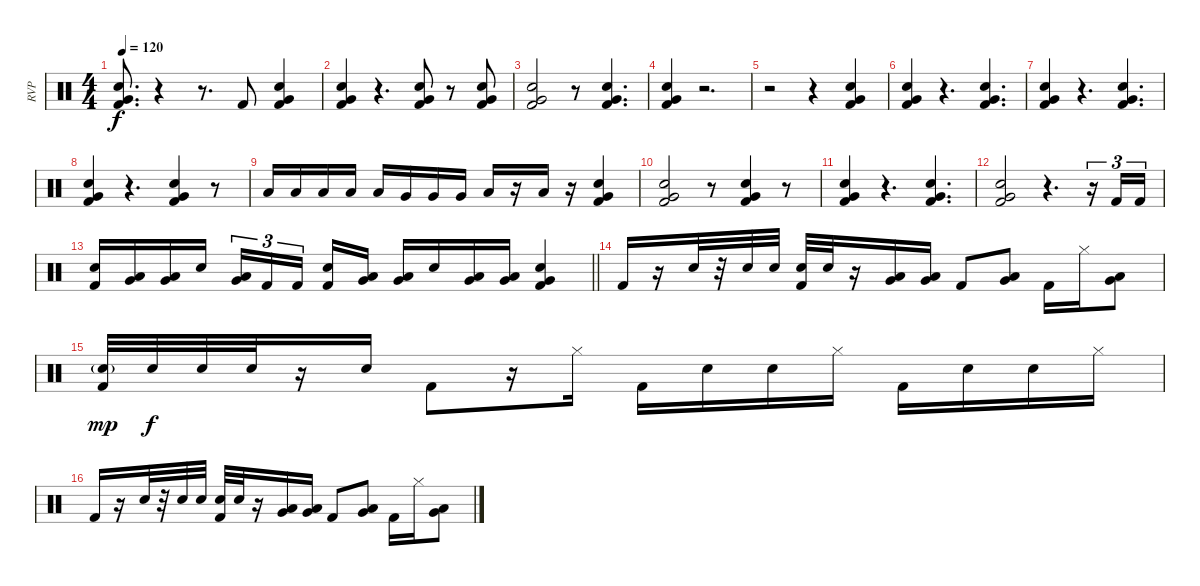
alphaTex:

\track ("RVP" "RVP") {instrument percussion}
\staff {score}
\articulation defaults
\ts (4 4)
\tempo 120
\clef neutral
\ks c
("Very Low Tom (hit)" "Electric Snare (hit)" "Kick (hit) 2").8{d dy f} r.4 r.8{d} "Kick (hit) 2".8 ("Very Low Tom (hit)" "Electric Snare (hit)" "Kick (hit) 2").4 |
("Very Low Tom (hit)" "Electric Snare (hit)" "Kick (hit) 2").4 r.4{d} ("Very Low Tom (hit)" "Electric Snare (hit)" "Kick (hit) 2").8 r.8 ("Very Low Tom (hit)" "Electric Snare (hit)" "Kick (hit) 2").8 |
("Very Low Tom (hit)" "Electric Snare (hit)" "Kick (hit) 2").2 r.8 ("Very Low Tom (hit)" "Electric Snare (hit)" "Kick (hit) 2").4{d} |
("Very Low Tom (hit)" "Electric Snare (hit)" "Kick (hit) 2").4 r.2{d} |
r.2 r.4 ("Very Low Tom (hit)" "Electric Snare (hit)" "Kick (hit) 2").4 |
("Very Low Tom (hit)" "Electric Snare (hit)" "Kick (hit) 2").4 r.4{d} ("Very Low Tom (hit)" "Electric Snare (hit)" "Kick (hit) 2").4{d} |
("Very Low Tom (hit)" "Electric Snare (hit)" "Kick (hit) 2").4 r.4{d} ("Very Low Tom (hit)" "Electric Snare (hit)" "Kick (hit) 2").4{d} |
("Very Low Tom (hit)" "Electric Snare (hit)" "Kick (hit) 2").4 r.4{d} ("Very Low Tom (hit)" "Electric Snare (hit)" "Kick (hit) 2").4 r.8 |
"Low Tom (hit)".16 "Low Tom (hit)".16 "Low Tom (hit)".16 "Low Tom (hit)".16 "Low Tom (hit)".16 "Very Low Tom (hit)".16 "Very Low Tom (hit)".16 "Very Low Tom (hit)".16 "Low Floor Tom (hit)".16 r.16 "Low Floor Tom (hit)".16 r.16 ("Very Low Tom (hit)" "Electric Snare (hit)" "Kick (hit) 2").4 |
("Very Low Tom (hit)" "Electric Snare (hit)" "Kick (hit) 2").2 r.8 ("Very Low Tom (hit)" "Electric Snare (hit)" "Kick (hit) 2").4 r.8 |
("Very Low Tom (hit)" "Electric Snare (hit)" "Kick (hit) 2").4 r.4{d} ("Very Low Tom (hit)" "Electric Snare (hit)" "Kick (hit) 2").4{d} |
("Very Low Tom (hit)" "Electric Snare (hit)" "Kick (hit) 2").2 r.4{d} r.16{tu (3 2)} "Kick (hit) 2".16{tu (3 2)} "Kick (hit) 2".16{tu (3 2)} |
\barLineRight lightlight
("Electric Snare (hit)" "Kick (hit) 2").16 ("Very Low Tom (hit)" "Low Floor Tom (hit)").16 ("Very Low Tom (hit)" "Low Floor Tom (hit)").16 "Electric Snare (hit)".16 ("Very Low Tom (hit)" "Low Floor Tom (hit)").16{tu (3 2)} "Kick (hit) 2".16{tu (3 2)} "Kick (hit) 2".16{tu (3 2) beam splitsecondary} ("Electric Snare (hit)" "Kick (hit) 2").16 ("Very Low Tom (hit)" "Low Floor Tom (hit)").16 ("Very Low Tom (hit)" "Low Floor Tom (hit)").16 "Electric Snare (hit)".16 ("Very Low Tom (hit)" "Low Floor Tom (hit)").16 ("Very Low Tom (hit)" "Low Floor Tom (hit)").16 ("Very Low Tom (hit)" "Electric Snare (hit)" "Kick (hit) 2").4 |
"Kick (hit) 2".16 r.16 "Electric Snare (hit)".32 r.32 "Electric Snare (hit)".32 "Electric Snare (hit)".32 ("Electric Snare (hit)" "Kick (hit) 2").32 "Electric Snare (hit)".32 r.16 ("Low Tom (hit)" "Very Low Tom (hit)").16 ("Very Low Tom (hit)" "Low Floor Tom (hit)").16 "Kick (hit) 2".8 ("Very Low Tom (hit)" "Low Floor Tom (hit)").8 "Kick (hit) 2".16 "Hi-Hat (closed)".16 ("Low Tom (hit)" "Very Low Tom (hit)").8 |
("Electric Snare (hit)"{g} "Kick (hit) 2").32{dy mp} "Electric Snare (hit)".32{dy f} "Electric Snare (hit)".32 "Electric Snare (hit)".32 r.16 "Electric Snare (hit)".16 "Kick (hit) 2".8 r.16 "Hi-Hat (closed)".16 "Kick (hit) 2".16 "Electric Snare (hit)".16 "Electric Snare (hit)".16 "Hi-Hat (closed)".16 "Kick (hit) 2".16 "Electric Snare (hit)".16 "Electric Snare (hit)".16 "Hi-Hat (closed)".16 |
"Kick (hit) 2".16 r.16 "Electric Snare (hit)".32 r.32 "Electric Snare (hit)".32 "Electric Snare (hit)".32 ("Electric Snare (hit)" "Kick (hit) 2").32 "Electric Snare (hit)".32 r.16 ("Low Tom (hit)" "Very Low Tom (hit)").16 ("Very Low Tom (hit)" "Low Floor Tom (hit)").16 "Kick (hit) 2".8 ("Very Low Tom (hit)" "Low Floor Tom (hit)").8 "Kick (hit) 2".16 "Hi-Hat (closed)".16 ("Low Tom (hit)" "Very Low Tom (hit)").8
